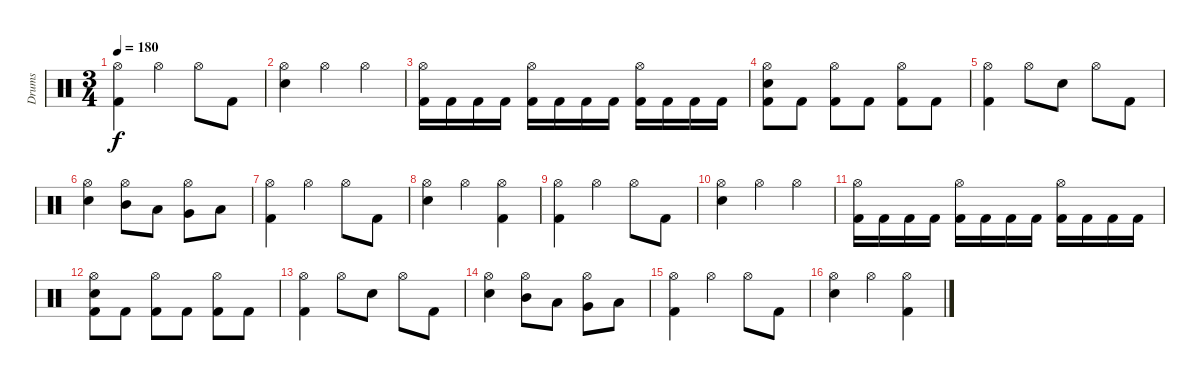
\track ("Drums" "Drums") {instrument percussion}
\staff {score}
\articulation defaults
\ts (3 4)
\tempo 180
\clef neutral
\ks c
("Hi-Hat (open)" "Kick (hit) 2").4{dy f} "Hi-Hat (open)".4 "Hi-Hat (open)".8 "Kick (hit) 2".8 |
("Hi-Hat (open)" "Electric Snare (hit)").4 "Hi-Hat (open)".4 "Hi-Hat (open)".4 |
("Hi-Hat (open)" "Kick (hit) 2").16 "Kick (hit) 2".16 "Kick (hit) 2".16 "Kick (hit) 2".16 ("Hi-Hat (open)" "Kick (hit) 2").16 "Kick (hit) 2".16 "Kick (hit) 2".16 "Kick (hit) 2".16 ("Hi-Hat (open)" "Kick (hit) 2").16 "Kick (hit) 2".16 "Kick (hit) 2".16 "Kick (hit) 2".16 |
("Hi-Hat (open)" "Electric Snare (hit)" "Kick (hit) 2").8 "Kick (hit) 2".8 ("Hi-Hat (open)" "Kick (hit) 2").8 "Kick (hit) 2".8 ("Hi-Hat (open)" "Kick (hit) 2").8 "Kick (hit) 2".8 |
("Hi-Hat (open)" "Kick (hit) 2").4 "Hi-Hat (open)".8 "Electric Snare (hit)".8 "Hi-Hat (open)".8 "Kick (hit) 2".8 |
("Hi-Hat (open)" "Electric Snare (hit)").4 ("Hi-Hat (open)" "Mid Tom (hit)").8 "Low Tom (hit)".8 ("Hi-Hat (open)" "Very Low Tom (hit)").8 "Low Floor Tom (hit)".8 |
("Hi-Hat (open)" "Kick (hit) 2").4 "Hi-Hat (open)".4 "Hi-Hat (open)".8 "Kick (hit) 2".8 |
("Hi-Hat (open)" "Electric Snare (hit)").4 "Hi-Hat (open)".4 ("Hi-Hat (open)" "Kick (hit) 2").4 |
("Hi-Hat (open)" "Kick (hit) 2").4 "Hi-Hat (open)".4 "Hi-Hat (open)".8 "Kick (hit) 2".8 |
("Hi-Hat (open)" "Electric Snare (hit)").4 "Hi-Hat (open)".4 "Hi-Hat (open)".4 |
("Hi-Hat (open)" "Kick (hit) 2").16 "Kick (hit) 2".16 "Kick (hit) 2".16 "Kick (hit) 2".16 ("Hi-Hat (open)" "Kick (hit) 2").16 "Kick (hit) 2".16 "Kick (hit) 2".16 "Kick (hit) 2".16 ("Hi-Hat (open)" "Kick (hit) 2").16 "Kick (hit) 2".16 "Kick (hit) 2".16 "Kick (hit) 2".16 |
("Hi-Hat (open)" "Electric Snare (hit)" "Kick (hit) 2").8 "Kick (hit) 2".8 ("Hi-Hat (open)" "Kick (hit) 2").8 "Kick (hit) 2".8 ("Hi-Hat (open)" "Kick (hit) 2").8 "Kick (hit) 2".8 |
("Hi-Hat (open)" "Kick (hit) 2").4 "Hi-Hat (open)".8 "Electric Snare (hit)".8 "Hi-Hat (open)".8 "Kick (hit) 2".8 |
("Hi-Hat (open)" "Electric Snare (hit)").4 ("Hi-Hat (open)" "Mid Tom (hit)").8 "Low Tom (hit)".8 ("Hi-Hat (open)" "Very Low Tom (hit)").8 "Low Floor Tom (hit)".8 |
("Hi-Hat (open)" "Kick (hit) 2").4 "Hi-Hat (open)".4 "Hi-Hat (open)".8 "Kick (hit) 2".8 |
("Hi-Hat (open)" "Electric Snare (hit)").4 "Hi-Hat (open)".4 ("Hi-Hat (open)" "Kick (hit) 2").4
